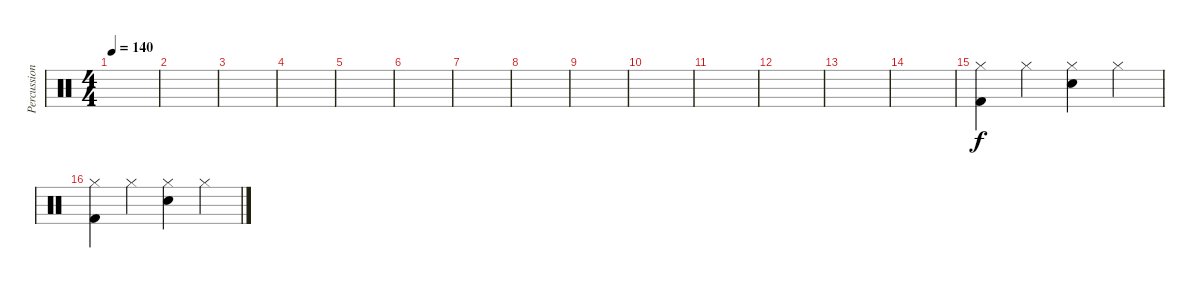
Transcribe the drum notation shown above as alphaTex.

\track ("Percussions" "Percussion") {instrument percussion}
\staff {score}
\articulation defaults
\ts (4 4)
\tempo 140
\clef neutral
\ks c
|
|
|
|
|
|
|
|
|
|
|
|
|
|
("Hi-Hat (closed)" "Kick (hit) 2").4 "Hi-Hat (closed)".4 ("Hi-Hat (closed)" "Electric Snare (hit)").4 "Hi-Hat (closed)".4 |
("Hi-Hat (closed)" "Kick (hit) 2").4 "Hi-Hat (closed)".4 ("Hi-Hat (closed)" "Electric Snare (hit)").4 "Hi-Hat (closed)".4
